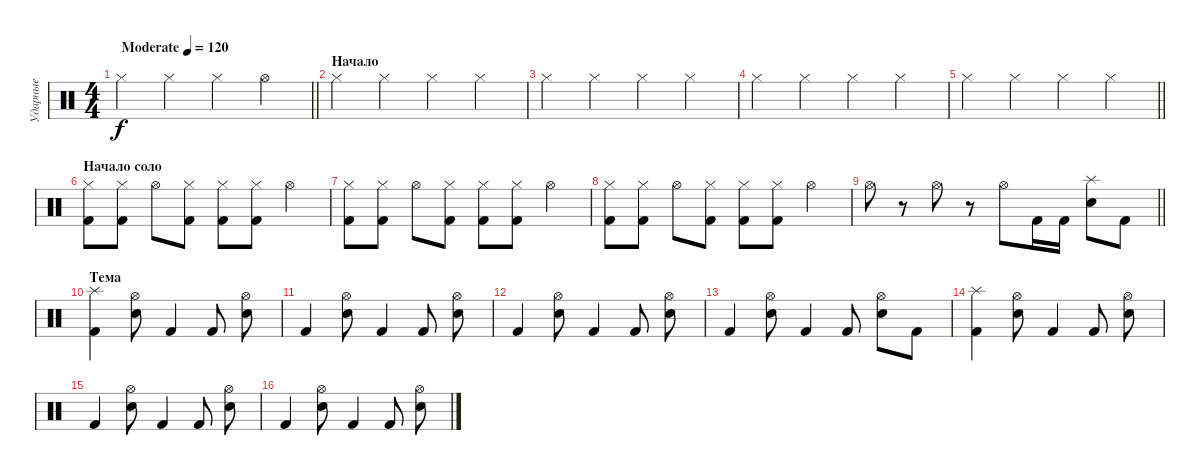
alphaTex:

\track ("Ударные" "Ударные") {instrument percussion}
\staff {score}
\articulation defaults
\ts (4 4)
\tempo (120 "Moderate")
\clef neutral
\barLineRight lightlight
\ks c "Hi-Hat (closed)".4{dy f} "Hi-Hat (closed)".4 "Hi-Hat (closed)".4 "Hi-Hat (open)".4
|
\section ("" "Начало")
"Hi-Hat (closed)".4 "Hi-Hat (closed)".4 "Hi-Hat (closed)".4 "Hi-Hat (closed)".4 |
"Hi-Hat (closed)".4 "Hi-Hat (closed)".4 "Hi-Hat (closed)".4 "Hi-Hat (closed)".4 |
"Hi-Hat (closed)".4 "Hi-Hat (closed)".4 "Hi-Hat (closed)".4 "Hi-Hat (closed)".4 |
\barLineRight lightlight "Hi-Hat (closed)".4 "Hi-Hat (closed)".4 "Hi-Hat (closed)".4 "Hi-Hat (closed)".4
|
\section ("" "Начало соло")
("Hi-Hat (closed)" "Kick (hit) 2").8 ("Hi-Hat (closed)" "Kick (hit) 2").8 "Hi-Hat (open)".8 ("Hi-Hat (closed)" "Kick (hit) 2").8 ("Hi-Hat (closed)" "Kick (hit) 2").8 ("Kick (hit) 2" "Hi-Hat (closed)").8 "Hi-Hat (open)".4 |
("Hi-Hat (closed)" "Kick (hit) 2").8 ("Hi-Hat (closed)" "Kick (hit) 2").8 "Hi-Hat (open)".8 ("Hi-Hat (closed)" "Kick (hit) 2").8 ("Hi-Hat (closed)" "Kick (hit) 2").8 ("Kick (hit) 2" "Hi-Hat (closed)").8 "Hi-Hat (open)".4 |
("Hi-Hat (closed)" "Kick (hit) 2").8 ("Hi-Hat (closed)" "Kick (hit) 2").8 "Hi-Hat (open)".8 ("Hi-Hat (closed)" "Kick (hit) 2").8 ("Hi-Hat (closed)" "Kick (hit) 2").8 ("Kick (hit) 2" "Hi-Hat (closed)").8 "Hi-Hat (open)".4 |
\barLineRight lightlight "Hi-Hat (open)".8
r.8 "Hi-Hat (open)".8 r.8 "Hi-Hat (open)".8 "Kick (hit) 2".16 "Kick (hit) 2".16 ("Snare (hit) 2" "Splash (hit)").8 "Kick (hit) 2".8 |
\section ("" "Тема")
("Kick (hit) 2" "Splash (hit)").4 ("Electric Snare (hit)" "Hi-Hat (open)").8 "Kick (hit) 2".4 "Kick (hit) 2".8 ("Electric Snare (hit)" "Hi-Hat (open)").8 |
"Kick (hit) 2".4 ("Electric Snare (hit)" "Hi-Hat (open)").8 "Kick (hit) 2".4 "Kick (hit) 2".8 ("Electric Snare (hit)" "Hi-Hat (open)").8 |
"Kick (hit) 2".4 ("Electric Snare (hit)" "Hi-Hat (open)").8 "Kick (hit) 2".4 "Kick (hit) 2".8 ("Electric Snare (hit)" "Hi-Hat (open)").8 |
"Kick (hit) 2".4 ("Electric Snare (hit)" "Hi-Hat (open)").8 "Kick (hit) 2".4 "Kick (hit) 2".8 ("Electric Snare (hit)" "Hi-Hat (open)").8 "Kick (hit) 2".8 |
("Kick (hit) 2" "Splash (hit)").4 ("Electric Snare (hit)" "Hi-Hat (open)").8 "Kick (hit) 2".4 "Kick (hit) 2".8 ("Electric Snare (hit)" "Hi-Hat (open)").8 |
"Kick (hit) 2".4 ("Electric Snare (hit)" "Hi-Hat (open)").8 "Kick (hit) 2".4 "Kick (hit) 2".8 ("Electric Snare (hit)" "Hi-Hat (open)").8 |
"Kick (hit) 2".4 ("Electric Snare (hit)" "Hi-Hat (open)").8 "Kick (hit) 2".4 "Kick (hit) 2".8 ("Electric Snare (hit)" "Hi-Hat (open)").8
